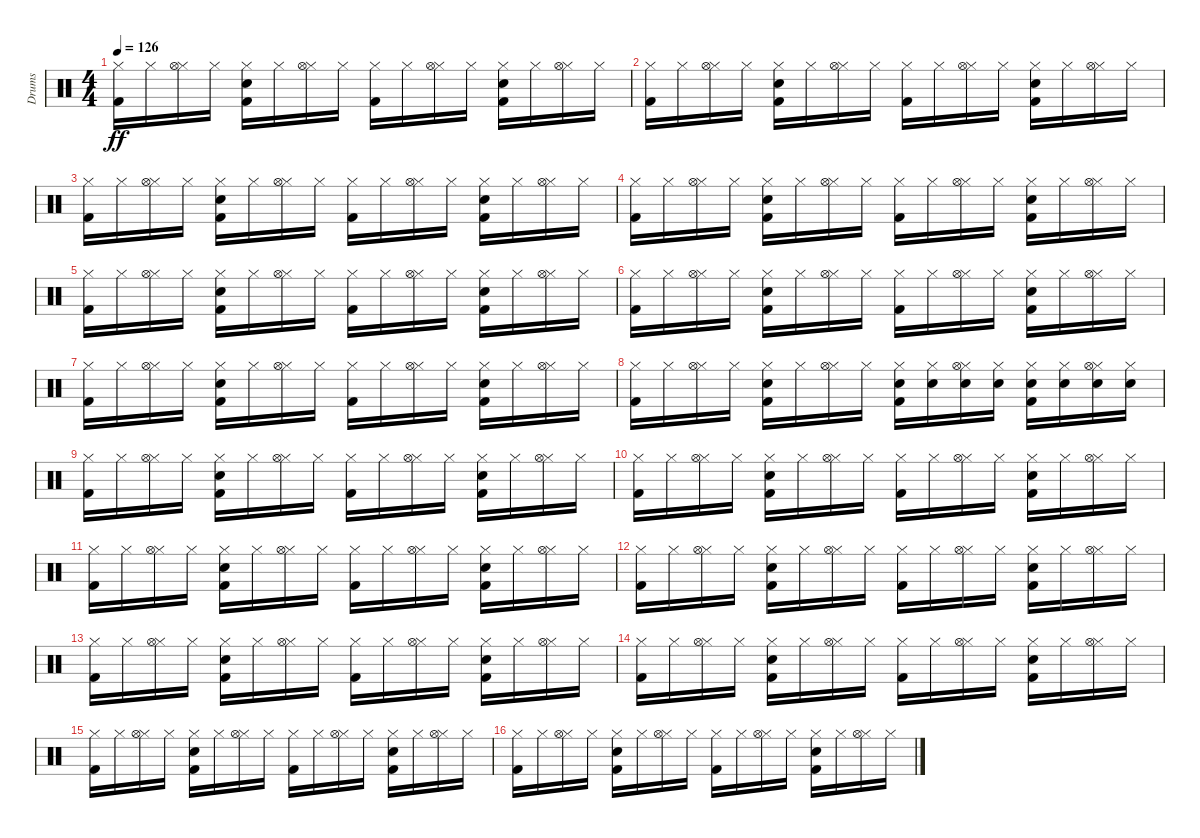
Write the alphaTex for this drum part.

\track ("Drums" "Drums") {instrument percussion}
\staff {score}
\articulation defaults
\ts (4 4)
\tempo 126
\clef neutral
\ks c
("Kick (hit) 2" "Hi-Hat (closed)").16{dy ff} "Hi-Hat (closed)".16 ("Hi-Hat (closed)" "Hi-Hat (open)").16 "Hi-Hat (closed)".16 ("Kick (hit) 2" "Electric Snare (hit)" "Hi-Hat (closed)").16 "Hi-Hat (closed)".16 ("Hi-Hat (closed)" "Hi-Hat (open)").16 "Hi-Hat (closed)".16 ("Kick (hit) 2" "Hi-Hat (closed)").16 "Hi-Hat (closed)".16 ("Hi-Hat (closed)" "Hi-Hat (open)").16 "Hi-Hat (closed)".16 ("Kick (hit) 2" "Electric Snare (hit)" "Hi-Hat (closed)").16 "Hi-Hat (closed)".16 ("Hi-Hat (closed)" "Hi-Hat (open)").16 "Hi-Hat (closed)".16 |
("Kick (hit) 2" "Hi-Hat (closed)").16 "Hi-Hat (closed)".16 ("Hi-Hat (closed)" "Hi-Hat (open)").16 "Hi-Hat (closed)".16 ("Kick (hit) 2" "Electric Snare (hit)" "Hi-Hat (closed)").16 "Hi-Hat (closed)".16 ("Hi-Hat (closed)" "Hi-Hat (open)").16 "Hi-Hat (closed)".16 ("Kick (hit) 2" "Hi-Hat (closed)").16 "Hi-Hat (closed)".16 ("Hi-Hat (closed)" "Hi-Hat (open)").16 "Hi-Hat (closed)".16 ("Kick (hit) 2" "Electric Snare (hit)" "Hi-Hat (closed)").16 "Hi-Hat (closed)".16 ("Hi-Hat (closed)" "Hi-Hat (open)").16 "Hi-Hat (closed)".16 |
("Kick (hit) 2" "Hi-Hat (closed)").16 "Hi-Hat (closed)".16 ("Hi-Hat (closed)" "Hi-Hat (open)").16 "Hi-Hat (closed)".16 ("Kick (hit) 2" "Electric Snare (hit)" "Hi-Hat (closed)").16 "Hi-Hat (closed)".16 ("Hi-Hat (closed)" "Hi-Hat (open)").16 "Hi-Hat (closed)".16 ("Kick (hit) 2" "Hi-Hat (closed)").16 "Hi-Hat (closed)".16 ("Hi-Hat (closed)" "Hi-Hat (open)").16 "Hi-Hat (closed)".16 ("Kick (hit) 2" "Electric Snare (hit)" "Hi-Hat (closed)").16 "Hi-Hat (closed)".16 ("Hi-Hat (closed)" "Hi-Hat (open)").16 "Hi-Hat (closed)".16 |
("Kick (hit) 2" "Hi-Hat (closed)").16 "Hi-Hat (closed)".16 ("Hi-Hat (closed)" "Hi-Hat (open)").16 "Hi-Hat (closed)".16 ("Kick (hit) 2" "Electric Snare (hit)" "Hi-Hat (closed)").16 "Hi-Hat (closed)".16 ("Hi-Hat (closed)" "Hi-Hat (open)").16 "Hi-Hat (closed)".16 ("Kick (hit) 2" "Hi-Hat (closed)").16 "Hi-Hat (closed)".16 ("Hi-Hat (closed)" "Hi-Hat (open)").16 "Hi-Hat (closed)".16 ("Kick (hit) 2" "Electric Snare (hit)" "Hi-Hat (closed)").16 "Hi-Hat (closed)".16 ("Hi-Hat (closed)" "Hi-Hat (open)").16 "Hi-Hat (closed)".16 |
("Kick (hit) 2" "Hi-Hat (closed)").16 "Hi-Hat (closed)".16 ("Hi-Hat (closed)" "Hi-Hat (open)").16 "Hi-Hat (closed)".16 ("Kick (hit) 2" "Electric Snare (hit)" "Hi-Hat (closed)").16 "Hi-Hat (closed)".16 ("Hi-Hat (closed)" "Hi-Hat (open)").16 "Hi-Hat (closed)".16 ("Kick (hit) 2" "Hi-Hat (closed)").16 "Hi-Hat (closed)".16 ("Hi-Hat (closed)" "Hi-Hat (open)").16 "Hi-Hat (closed)".16 ("Kick (hit) 2" "Electric Snare (hit)" "Hi-Hat (closed)").16 "Hi-Hat (closed)".16 ("Hi-Hat (closed)" "Hi-Hat (open)").16 "Hi-Hat (closed)".16 |
("Kick (hit) 2" "Hi-Hat (closed)").16 "Hi-Hat (closed)".16 ("Hi-Hat (closed)" "Hi-Hat (open)").16 "Hi-Hat (closed)".16 ("Kick (hit) 2" "Electric Snare (hit)" "Hi-Hat (closed)").16 "Hi-Hat (closed)".16 ("Hi-Hat (closed)" "Hi-Hat (open)").16 "Hi-Hat (closed)".16 ("Kick (hit) 2" "Hi-Hat (closed)").16 "Hi-Hat (closed)".16 ("Hi-Hat (closed)" "Hi-Hat (open)").16 "Hi-Hat (closed)".16 ("Kick (hit) 2" "Electric Snare (hit)" "Hi-Hat (closed)").16 "Hi-Hat (closed)".16 ("Hi-Hat (closed)" "Hi-Hat (open)").16 "Hi-Hat (closed)".16 |
("Kick (hit) 2" "Hi-Hat (closed)").16 "Hi-Hat (closed)".16 ("Hi-Hat (closed)" "Hi-Hat (open)").16 "Hi-Hat (closed)".16 ("Kick (hit) 2" "Electric Snare (hit)" "Hi-Hat (closed)").16 "Hi-Hat (closed)".16 ("Hi-Hat (closed)" "Hi-Hat (open)").16 "Hi-Hat (closed)".16 ("Kick (hit) 2" "Hi-Hat (closed)").16 "Hi-Hat (closed)".16 ("Hi-Hat (closed)" "Hi-Hat (open)").16 "Hi-Hat (closed)".16 ("Kick (hit) 2" "Electric Snare (hit)" "Hi-Hat (closed)").16 "Hi-Hat (closed)".16 ("Hi-Hat (closed)" "Hi-Hat (open)").16 "Hi-Hat (closed)".16 |
("Kick (hit) 2" "Hi-Hat (closed)").16 "Hi-Hat (closed)".16 ("Hi-Hat (closed)" "Hi-Hat (open)").16 "Hi-Hat (closed)".16 ("Kick (hit) 2" "Electric Snare (hit)" "Hi-Hat (closed)").16 "Hi-Hat (closed)".16 ("Hi-Hat (closed)" "Hi-Hat (open)").16 "Hi-Hat (closed)".16 ("Kick (hit) 2" "Electric Snare (hit)" "Hi-Hat (closed)").16 ("Electric Snare (hit)" "Hi-Hat (closed)").16 ("Electric Snare (hit)" "Hi-Hat (closed)" "Hi-Hat (open)").16 ("Electric Snare (hit)" "Hi-Hat (closed)").16 ("Kick (hit) 2" "Electric Snare (hit)" "Hi-Hat (closed)").16 ("Electric Snare (hit)" "Hi-Hat (closed)").16 ("Electric Snare (hit)" "Hi-Hat (closed)" "Hi-Hat (open)").16 ("Electric Snare (hit)" "Hi-Hat (closed)").16 |
("Kick (hit) 2" "Hi-Hat (closed)").16 "Hi-Hat (closed)".16 ("Hi-Hat (closed)" "Hi-Hat (open)").16 "Hi-Hat (closed)".16 ("Kick (hit) 2" "Electric Snare (hit)" "Hi-Hat (closed)").16 "Hi-Hat (closed)".16 ("Hi-Hat (closed)" "Hi-Hat (open)").16 "Hi-Hat (closed)".16 ("Kick (hit) 2" "Hi-Hat (closed)").16 "Hi-Hat (closed)".16 ("Hi-Hat (closed)" "Hi-Hat (open)").16 "Hi-Hat (closed)".16 ("Kick (hit) 2" "Electric Snare (hit)" "Hi-Hat (closed)").16 "Hi-Hat (closed)".16 ("Hi-Hat (closed)" "Hi-Hat (open)").16 "Hi-Hat (closed)".16 |
("Kick (hit) 2" "Hi-Hat (closed)").16 "Hi-Hat (closed)".16 ("Hi-Hat (closed)" "Hi-Hat (open)").16 "Hi-Hat (closed)".16 ("Kick (hit) 2" "Electric Snare (hit)" "Hi-Hat (closed)").16 "Hi-Hat (closed)".16 ("Hi-Hat (closed)" "Hi-Hat (open)").16 "Hi-Hat (closed)".16 ("Kick (hit) 2" "Hi-Hat (closed)").16 "Hi-Hat (closed)".16 ("Hi-Hat (closed)" "Hi-Hat (open)").16 "Hi-Hat (closed)".16 ("Kick (hit) 2" "Electric Snare (hit)" "Hi-Hat (closed)").16 "Hi-Hat (closed)".16 ("Hi-Hat (closed)" "Hi-Hat (open)").16 "Hi-Hat (closed)".16 |
("Kick (hit) 2" "Hi-Hat (closed)").16 "Hi-Hat (closed)".16 ("Hi-Hat (closed)" "Hi-Hat (open)").16 "Hi-Hat (closed)".16 ("Kick (hit) 2" "Electric Snare (hit)" "Hi-Hat (closed)").16 "Hi-Hat (closed)".16 ("Hi-Hat (closed)" "Hi-Hat (open)").16 "Hi-Hat (closed)".16 ("Kick (hit) 2" "Hi-Hat (closed)").16 "Hi-Hat (closed)".16 ("Hi-Hat (closed)" "Hi-Hat (open)").16 "Hi-Hat (closed)".16 ("Kick (hit) 2" "Electric Snare (hit)" "Hi-Hat (closed)").16 "Hi-Hat (closed)".16 ("Hi-Hat (closed)" "Hi-Hat (open)").16 "Hi-Hat (closed)".16 |
("Kick (hit) 2" "Hi-Hat (closed)").16 "Hi-Hat (closed)".16 ("Hi-Hat (closed)" "Hi-Hat (open)").16 "Hi-Hat (closed)".16 ("Kick (hit) 2" "Electric Snare (hit)" "Hi-Hat (closed)").16 "Hi-Hat (closed)".16 ("Hi-Hat (closed)" "Hi-Hat (open)").16 "Hi-Hat (closed)".16 ("Kick (hit) 2" "Hi-Hat (closed)").16 "Hi-Hat (closed)".16 ("Hi-Hat (closed)" "Hi-Hat (open)").16 "Hi-Hat (closed)".16 ("Kick (hit) 2" "Electric Snare (hit)" "Hi-Hat (closed)").16 "Hi-Hat (closed)".16 ("Hi-Hat (closed)" "Hi-Hat (open)").16 "Hi-Hat (closed)".16 |
("Kick (hit) 2" "Hi-Hat (closed)").16 "Hi-Hat (closed)".16 ("Hi-Hat (closed)" "Hi-Hat (open)").16 "Hi-Hat (closed)".16 ("Kick (hit) 2" "Electric Snare (hit)" "Hi-Hat (closed)").16 "Hi-Hat (closed)".16 ("Hi-Hat (closed)" "Hi-Hat (open)").16 "Hi-Hat (closed)".16 ("Kick (hit) 2" "Hi-Hat (closed)").16 "Hi-Hat (closed)".16 ("Hi-Hat (closed)" "Hi-Hat (open)").16 "Hi-Hat (closed)".16 ("Kick (hit) 2" "Electric Snare (hit)" "Hi-Hat (closed)").16 "Hi-Hat (closed)".16 ("Hi-Hat (closed)" "Hi-Hat (open)").16 "Hi-Hat (closed)".16 |
("Kick (hit) 2" "Hi-Hat (closed)").16 "Hi-Hat (closed)".16 ("Hi-Hat (closed)" "Hi-Hat (open)").16 "Hi-Hat (closed)".16 ("Kick (hit) 2" "Electric Snare (hit)" "Hi-Hat (closed)").16 "Hi-Hat (closed)".16 ("Hi-Hat (closed)" "Hi-Hat (open)").16 "Hi-Hat (closed)".16 ("Kick (hit) 2" "Hi-Hat (closed)").16 "Hi-Hat (closed)".16 ("Hi-Hat (closed)" "Hi-Hat (open)").16 "Hi-Hat (closed)".16 ("Kick (hit) 2" "Electric Snare (hit)" "Hi-Hat (closed)").16 "Hi-Hat (closed)".16 ("Hi-Hat (closed)" "Hi-Hat (open)").16 "Hi-Hat (closed)".16 |
("Kick (hit) 2" "Hi-Hat (closed)").16 "Hi-Hat (closed)".16 ("Hi-Hat (closed)" "Hi-Hat (open)").16 "Hi-Hat (closed)".16 ("Kick (hit) 2" "Electric Snare (hit)" "Hi-Hat (closed)").16 "Hi-Hat (closed)".16 ("Hi-Hat (closed)" "Hi-Hat (open)").16 "Hi-Hat (closed)".16 ("Kick (hit) 2" "Hi-Hat (closed)").16 "Hi-Hat (closed)".16 ("Hi-Hat (closed)" "Hi-Hat (open)").16 "Hi-Hat (closed)".16 ("Kick (hit) 2" "Electric Snare (hit)" "Hi-Hat (closed)").16 "Hi-Hat (closed)".16 ("Hi-Hat (closed)" "Hi-Hat (open)").16 "Hi-Hat (closed)".16 |
("Kick (hit) 2" "Hi-Hat (closed)").16 "Hi-Hat (closed)".16 ("Hi-Hat (closed)" "Hi-Hat (open)").16 "Hi-Hat (closed)".16 ("Kick (hit) 2" "Electric Snare (hit)" "Hi-Hat (closed)").16 "Hi-Hat (closed)".16 ("Hi-Hat (closed)" "Hi-Hat (open)").16 "Hi-Hat (closed)".16 ("Kick (hit) 2" "Hi-Hat (closed)").16 "Hi-Hat (closed)".16 ("Hi-Hat (closed)" "Hi-Hat (open)").16 "Hi-Hat (closed)".16 ("Kick (hit) 2" "Electric Snare (hit)" "Hi-Hat (closed)").16 "Hi-Hat (closed)".16 ("Hi-Hat (closed)" "Hi-Hat (open)").16 "Hi-Hat (closed)".16
